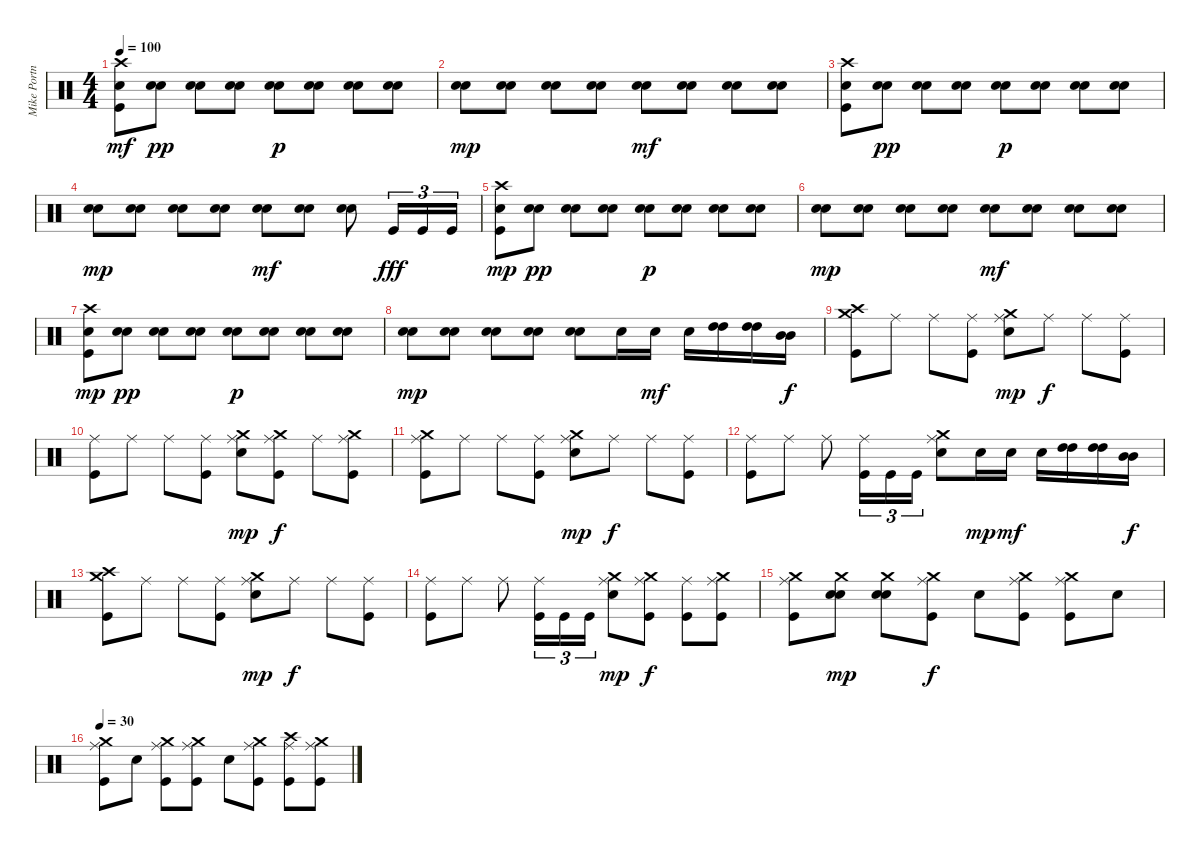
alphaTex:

\track ("Mike Portnoy" "Mike Portn") {instrument percussion}
\staff {score}
\articulation defaults
\ts (4 4)
\tempo 100
\clef neutral
\ks c
("Crash high (hit)" "Kick (hit)" "Electric Snare (hit)").8{dy mf} ("Electric Snare (hit)" "Electric Snare (hit)").8{dy pp} ("Electric Snare (hit)" "Electric Snare (hit)").8 ("Electric Snare (hit)" "Electric Snare (hit)").8 ("Electric Snare (hit)" "Electric Snare (hit)").8{dy p} ("Electric Snare (hit)" "Electric Snare (hit)").8 ("Electric Snare (hit)" "Electric Snare (hit)").8 ("Electric Snare (hit)" "Electric Snare (hit)").8 |
("Electric Snare (hit)" "Electric Snare (hit)").8{dy mp} ("Electric Snare (hit)" "Electric Snare (hit)").8 ("Electric Snare (hit)" "Electric Snare (hit)").8 ("Electric Snare (hit)" "Electric Snare (hit)").8 ("Electric Snare (hit)" "Electric Snare (hit)").8{dy mf} ("Electric Snare (hit)" "Electric Snare (hit)").8 ("Electric Snare (hit)" "Electric Snare (hit)").8 ("Electric Snare (hit)" "Electric Snare (hit)").8 |
("Crash high (hit)" "Kick (hit)" "Electric Snare (hit)").8 ("Electric Snare (hit)" "Electric Snare (hit)").8{dy pp} ("Electric Snare (hit)" "Electric Snare (hit)").8 ("Electric Snare (hit)" "Electric Snare (hit)").8 ("Electric Snare (hit)" "Electric Snare (hit)").8{dy p} ("Electric Snare (hit)" "Electric Snare (hit)").8 ("Electric Snare (hit)" "Electric Snare (hit)").8 ("Electric Snare (hit)" "Electric Snare (hit)").8 |
("Electric Snare (hit)" "Electric Snare (hit)").8{dy mp} ("Electric Snare (hit)" "Electric Snare (hit)").8 ("Electric Snare (hit)" "Electric Snare (hit)").8 ("Electric Snare (hit)" "Electric Snare (hit)").8 ("Electric Snare (hit)" "Electric Snare (hit)").8{dy mf} ("Electric Snare (hit)" "Electric Snare (hit)").8 ("Electric Snare (hit)" "Electric Snare (hit)").8 "Kick (hit)".16{tu (3 2) dy fff} "Kick (hit)".16{tu (3 2)} "Kick (hit)".16{tu (3 2)} |
("Crash high (hit)" "Kick (hit)" "Electric Snare (hit)").8{dy mp} ("Electric Snare (hit)" "Electric Snare (hit)").8{dy pp} ("Electric Snare (hit)" "Electric Snare (hit)").8 ("Electric Snare (hit)" "Electric Snare (hit)").8 ("Electric Snare (hit)" "Electric Snare (hit)").8{dy p} ("Electric Snare (hit)" "Electric Snare (hit)").8 ("Electric Snare (hit)" "Electric Snare (hit)").8 ("Electric Snare (hit)" "Electric Snare (hit)").8 |
("Electric Snare (hit)" "Electric Snare (hit)").8{dy mp} ("Electric Snare (hit)" "Electric Snare (hit)").8 ("Electric Snare (hit)" "Electric Snare (hit)").8 ("Electric Snare (hit)" "Electric Snare (hit)").8 ("Electric Snare (hit)" "Electric Snare (hit)").8{dy mf} ("Electric Snare (hit)" "Electric Snare (hit)").8 ("Electric Snare (hit)" "Electric Snare (hit)").8 ("Electric Snare (hit)" "Electric Snare (hit)").8 |
("Crash high (hit)" "Kick (hit)" "Electric Snare (hit)").8{dy mp} ("Electric Snare (hit)" "Electric Snare (hit)").8{dy pp} ("Electric Snare (hit)" "Electric Snare (hit)").8 ("Electric Snare (hit)" "Electric Snare (hit)").8 ("Electric Snare (hit)" "Electric Snare (hit)").8{dy p} ("Electric Snare (hit)" "Electric Snare (hit)").8 ("Electric Snare (hit)" "Electric Snare (hit)").8 ("Electric Snare (hit)" "Electric Snare (hit)").8 |
("Electric Snare (hit)" "Electric Snare (hit)").8{dy mp} ("Electric Snare (hit)" "Electric Snare (hit)").8 ("Electric Snare (hit)" "Electric Snare (hit)").8 ("Electric Snare (hit)" "Electric Snare (hit)").8 ("Electric Snare (hit)" "Electric Snare (hit)").8 "Electric Snare (hit)".16 "Electric Snare (hit)".16{dy mf} "Electric Snare (hit)".16 ("High Tom (hit)" "High Tom (hit)").16 ("High Tom (hit)" "High Tom (hit)").16 ("Mid Tom (hit)" "Mid Tom (hit)").16{dy f} |
("Crash medium (hit)" "Crash high (hit)" "Kick (hit)").8 "Ride (middle)".8 "Ride (middle)".8 ("Ride (middle)" "Kick (hit)").8 ("Crash medium (hit)" "Ride (middle)" "Electric Snare (hit)").8{dy mp} "Ride (middle)".8{dy f} "Ride (middle)".8 ("Ride (middle)" "Kick (hit)").8 |
("Ride (middle)" "Kick (hit)").8 "Ride (middle)".8 "Ride (middle)".8 ("Ride (middle)" "Kick (hit)").8 ("Crash medium (hit)" "Ride (middle)" "Electric Snare (hit)").8{dy mp} ("Crash medium (hit)" "Ride (middle)" "Kick (hit)").8{dy f} "Ride (middle)".8 ("Crash medium (hit)" "Ride (middle)" "Kick (hit)").8 |
("Crash medium (hit)" "Ride (middle)" "Kick (hit)").8 "Ride (middle)".8 "Ride (middle)".8 ("Ride (middle)" "Kick (hit)").8 ("Crash medium (hit)" "Ride (middle)" "Electric Snare (hit)").8{dy mp} "Ride (middle)".8{dy f} "Ride (middle)".8 ("Ride (middle)" "Kick (hit)").8 |
("Ride (middle)" "Kick (hit)").8 "Ride (middle)".8 "Ride (middle)".8 ("Ride (middle)" "Kick (hit)").16{tu (3 2)} "Kick (hit)".16{tu (3 2)} "Kick (hit)".16{tu (3 2)} ("Crash medium (hit)" "Ride (middle)" "Electric Snare (hit)").8 "Electric Snare (hit)".16{dy mp} "Electric Snare (hit)".16{dy mf} "Electric Snare (hit)".16 ("High Tom (hit)" "High Tom (hit)").16 ("High Tom (hit)" "High Tom (hit)").16 ("Mid Tom (hit)" "Mid Tom (hit)").16{dy f} |
("Crash medium (hit)" "Crash high (hit)" "Kick (hit)").8 "Ride (middle)".8 "Ride (middle)".8 ("Ride (middle)" "Kick (hit)").8 ("Crash medium (hit)" "Ride (middle)" "Electric Snare (hit)").8{dy mp} "Ride (middle)".8{dy f} "Ride (middle)".8 ("Ride (middle)" "Kick (hit)").8 |
("Ride (middle)" "Kick (hit)").8 "Ride (middle)".8 "Ride (middle)".8 ("Ride (middle)" "Kick (hit)").16{tu (3 2)} "Kick (hit)".16{tu (3 2)} "Kick (hit)".16{tu (3 2)} ("Crash medium (hit)" "Ride (middle)" "Electric Snare (hit)").8{dy mp} ("Crash medium (hit)" "Ride (middle)" "Kick (hit)").8{dy f} ("Ride (middle)" "Kick (hit)").8 ("Crash medium (hit)" "Ride (middle)" "Kick (hit)").8 |
("Crash medium (hit)" "Ride (middle)" "Kick (hit)").8 ("Crash medium (hit)" "Electric Snare (hit)" "Electric Snare (hit)").8{dy mp} ("Crash medium (hit)" "Electric Snare (hit)" "Electric Snare (hit)").8 ("Crash medium (hit)" "Ride (middle)" "Kick (hit)").8{dy f} "Electric Snare (hit)".8 ("Crash medium (hit)" "Ride (middle)" "Kick (hit)").8 ("Crash medium (hit)" "Ride (middle)" "Kick (hit)").8 "Electric Snare (hit)".8 |
\tempo 30
("Crash medium (hit)" "Ride (middle)" "Kick (hit)").8 "Electric Snare (hit)".8 ("Crash medium (hit)" "Ride (middle)" "Kick (hit)").8 ("Crash medium (hit)" "Ride (middle)" "Kick (hit)").8 "Electric Snare (hit)".8 ("Crash medium (hit)" "Ride (middle)" "Kick (hit)").8 ("Crash high (hit)" "Ride (middle)" "Kick (hit)").8 ("Crash medium (hit)" "Ride (middle)" "Kick (hit)").8
